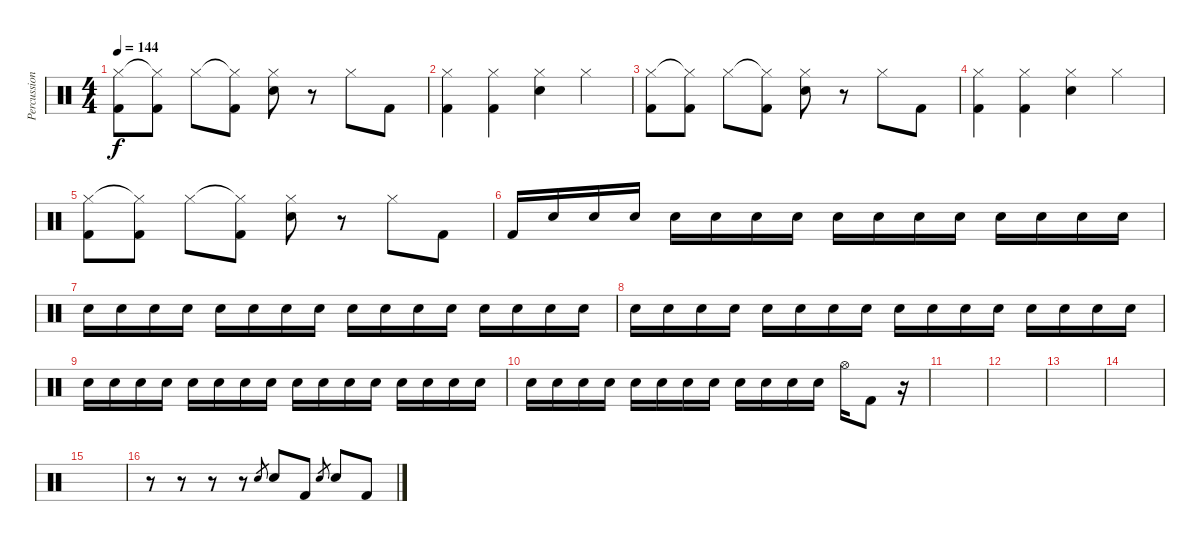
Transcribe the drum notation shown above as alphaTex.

\track ("Percussion" "Percussion") {instrument percussion}
\staff {score}
\articulation defaults
\ts (4 4)
\tempo 144
\clef neutral
\ks c
("Hi-Hat (closed)" "Kick (hit) 2").8{dy f} ("Hi-Hat (closed)"{t} "Kick (hit) 2").8 "Hi-Hat (closed)".8 ("Hi-Hat (closed)"{t} "Kick (hit) 2").8 ("Hi-Hat (closed)" "Snare (hit) 2").8 r.8 "Hi-Hat (closed)".8 "Kick (hit) 2".8 |
("Hi-Hat (closed)" "Kick (hit) 2").4 ("Hi-Hat (closed)" "Kick (hit) 2").4 ("Hi-Hat (closed)" "Snare (hit) 2").4 "Hi-Hat (closed)".4 |
("Hi-Hat (closed)" "Kick (hit) 2").8 ("Hi-Hat (closed)"{t} "Kick (hit) 2").8 "Hi-Hat (closed)".8 ("Hi-Hat (closed)"{t} "Kick (hit) 2").8 ("Hi-Hat (closed)" "Snare (hit) 2").8 r.8 "Hi-Hat (closed)".8 "Kick (hit) 2".8 |
("Hi-Hat (closed)" "Kick (hit) 2").4 ("Hi-Hat (closed)" "Kick (hit) 2").4 ("Hi-Hat (closed)" "Snare (hit) 2").4 "Hi-Hat (closed)".4 |
("Hi-Hat (closed)" "Kick (hit) 2").8 ("Hi-Hat (closed)"{t} "Kick (hit) 2").8 "Hi-Hat (closed)".8 ("Hi-Hat (closed)"{t} "Kick (hit) 2").8 ("Hi-Hat (closed)" "Snare (hit) 2").8 r.8 "Hi-Hat (closed)".8 "Kick (hit) 2".8 |
"Kick (hit) 2".16 "Snare (hit) 2".16 "Snare (hit) 2".16 "Snare (hit) 2".16 "Snare (hit) 2".16 "Snare (hit) 2".16 "Snare (hit) 2".16 "Snare (hit) 2".16 "Snare (hit) 2".16 "Snare (hit) 2".16 "Snare (hit) 2".16 "Snare (hit) 2".16 "Snare (hit) 2".16 "Snare (hit) 2".16 "Snare (hit) 2".16 "Snare (hit) 2".16 |
"Snare (hit) 2".16 "Snare (hit) 2".16 "Snare (hit) 2".16 "Snare (hit) 2".16 "Snare (hit) 2".16 "Snare (hit) 2".16 "Snare (hit) 2".16 "Snare (hit) 2".16 "Snare (hit) 2".16 "Snare (hit) 2".16 "Snare (hit) 2".16 "Snare (hit) 2".16 "Snare (hit) 2".16 "Snare (hit) 2".16 "Snare (hit) 2".16 "Snare (hit) 2".16 |
"Snare (hit) 2".16 "Snare (hit) 2".16 "Snare (hit) 2".16 "Snare (hit) 2".16 "Snare (hit) 2".16 "Snare (hit) 2".16 "Snare (hit) 2".16 "Snare (hit) 2".16 "Snare (hit) 2".16 "Snare (hit) 2".16 "Snare (hit) 2".16 "Snare (hit) 2".16 "Snare (hit) 2".16 "Snare (hit) 2".16 "Snare (hit) 2".16 "Snare (hit) 2".16 |
"Snare (hit) 2".16 "Snare (hit) 2".16 "Snare (hit) 2".16 "Snare (hit) 2".16 "Snare (hit) 2".16 "Snare (hit) 2".16 "Snare (hit) 2".16 "Snare (hit) 2".16 "Snare (hit) 2".16 "Snare (hit) 2".16 "Snare (hit) 2".16 "Snare (hit) 2".16 "Snare (hit) 2".16 "Snare (hit) 2".16 "Snare (hit) 2".16 "Snare (hit) 2".16 |
"Snare (hit) 2".16 "Snare (hit) 2".16 "Snare (hit) 2".16 "Snare (hit) 2".16 "Snare (hit) 2".16 "Snare (hit) 2".16 "Snare (hit) 2".16 "Snare (hit) 2".16 "Snare (hit) 2".16 "Snare (hit) 2".16 "Snare (hit) 2".16 "Snare (hit) 2".16 "Hi-Hat (open)".16 "Kick (hit) 2".8 r.16 |
|
|
|
|
|
r.8 r.8 r.8 r.8 "Snare (hit) 2".8{gr} "Snare (hit) 2".8 "Kick (hit) 2".8 "Snare (hit) 2".8{gr} "Snare (hit) 2".8 "Kick (hit) 2".8
